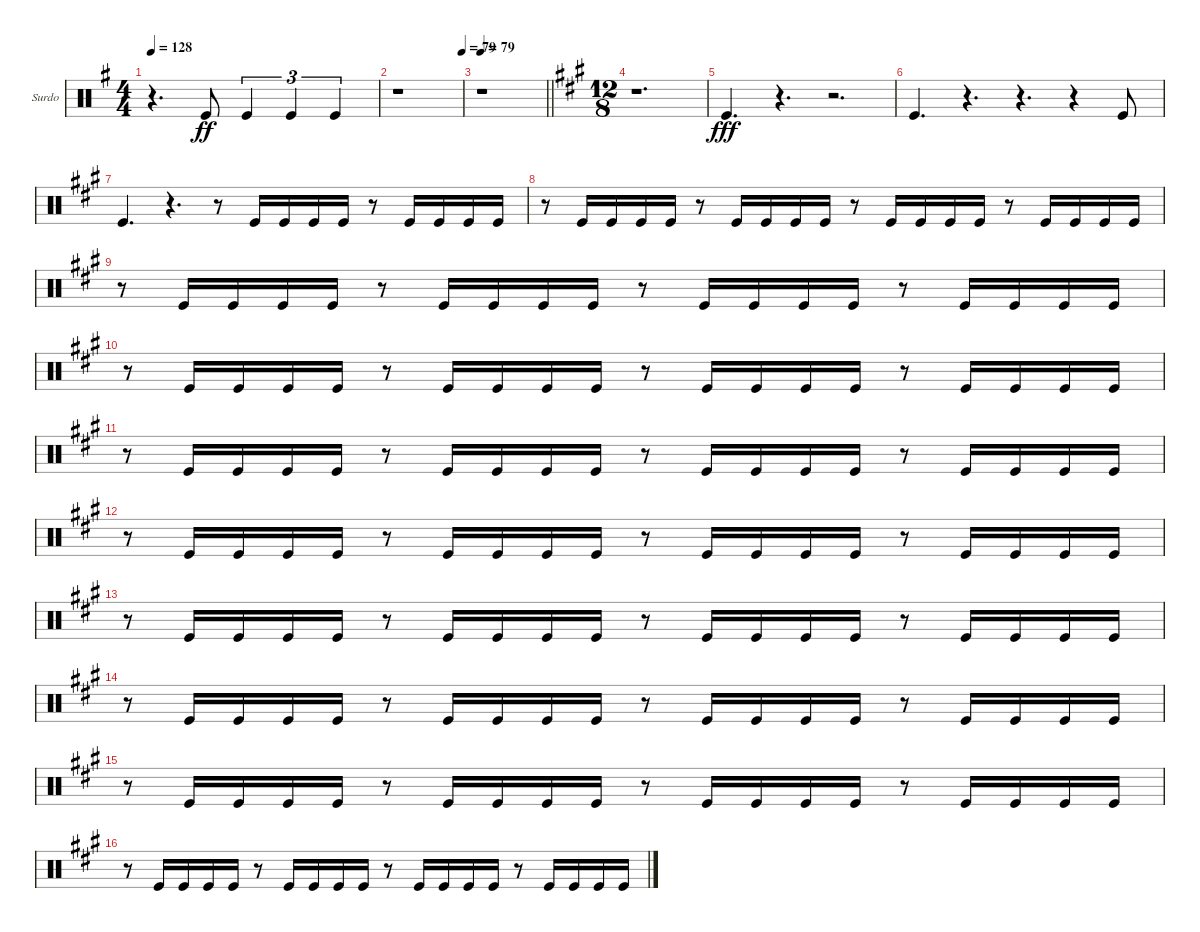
\bracketExtendMode groupsimilarinstruments
\firstSystemTrackNameOrientation horizontal
\otherSystemsTrackNameOrientation horizontal
\track ("Surdo" "Surdo") {instrument percussion}
\staff {score}
\articulation defaults
\ts (4 4)
\tempo 128
\clef neutral
\ks eminor
r.4{d dy ff} "Kick (hit)".8 "Kick (hit)".4{tu (3 2)} "Kick (hit)".4{tu (3 2)} "Kick (hit)".4{tu (3 2)} |
\tempo (79 1)
r.1 |
\tempo 79
\barLineRight lightlight
r.1 |
\ts (12 8)
\beaming (8 3 3 3 3)
\ks f#minor
r.1{d} |
"Kick (hit)".4{d dy fff} r.4{d} r.2{d} |
"Kick (hit)".4{d} r.4{d} r.4{d} r.4 "Kick (hit)".8 |
"Kick (hit)".4{d} r.4{d} r.8 "Kick (hit)".16 "Kick (hit)".16 "Kick (hit)".16 "Kick (hit)".16 r.8 "Kick (hit)".16 "Kick (hit)".16 "Kick (hit)".16 "Kick (hit)".16 |
r.8 "Kick (hit)".16 "Kick (hit)".16 "Kick (hit)".16 "Kick (hit)".16 r.8 "Kick (hit)".16 "Kick (hit)".16 "Kick (hit)".16 "Kick (hit)".16 r.8 "Kick (hit)".16 "Kick (hit)".16 "Kick (hit)".16 "Kick (hit)".16 r.8 "Kick (hit)".16 "Kick (hit)".16 "Kick (hit)".16 "Kick (hit)".16 |
r.8 "Kick (hit)".16 "Kick (hit)".16 "Kick (hit)".16 "Kick (hit)".16 r.8 "Kick (hit)".16 "Kick (hit)".16 "Kick (hit)".16 "Kick (hit)".16 r.8 "Kick (hit)".16 "Kick (hit)".16 "Kick (hit)".16 "Kick (hit)".16 r.8 "Kick (hit)".16 "Kick (hit)".16 "Kick (hit)".16 "Kick (hit)".16 |
r.8 "Kick (hit)".16 "Kick (hit)".16 "Kick (hit)".16 "Kick (hit)".16 r.8 "Kick (hit)".16 "Kick (hit)".16 "Kick (hit)".16 "Kick (hit)".16 r.8 "Kick (hit)".16 "Kick (hit)".16 "Kick (hit)".16 "Kick (hit)".16 r.8 "Kick (hit)".16 "Kick (hit)".16 "Kick (hit)".16 "Kick (hit)".16 |
r.8 "Kick (hit)".16 "Kick (hit)".16 "Kick (hit)".16 "Kick (hit)".16 r.8 "Kick (hit)".16 "Kick (hit)".16 "Kick (hit)".16 "Kick (hit)".16 r.8 "Kick (hit)".16 "Kick (hit)".16 "Kick (hit)".16 "Kick (hit)".16 r.8 "Kick (hit)".16 "Kick (hit)".16 "Kick (hit)".16 "Kick (hit)".16 |
r.8 "Kick (hit)".16 "Kick (hit)".16 "Kick (hit)".16 "Kick (hit)".16 r.8 "Kick (hit)".16 "Kick (hit)".16 "Kick (hit)".16 "Kick (hit)".16 r.8 "Kick (hit)".16 "Kick (hit)".16 "Kick (hit)".16 "Kick (hit)".16 r.8 "Kick (hit)".16 "Kick (hit)".16 "Kick (hit)".16 "Kick (hit)".16 |
r.8 "Kick (hit)".16 "Kick (hit)".16 "Kick (hit)".16 "Kick (hit)".16 r.8 "Kick (hit)".16 "Kick (hit)".16 "Kick (hit)".16 "Kick (hit)".16 r.8 "Kick (hit)".16 "Kick (hit)".16 "Kick (hit)".16 "Kick (hit)".16 r.8 "Kick (hit)".16 "Kick (hit)".16 "Kick (hit)".16 "Kick (hit)".16 |
r.8 "Kick (hit)".16 "Kick (hit)".16 "Kick (hit)".16 "Kick (hit)".16 r.8 "Kick (hit)".16 "Kick (hit)".16 "Kick (hit)".16 "Kick (hit)".16 r.8 "Kick (hit)".16 "Kick (hit)".16 "Kick (hit)".16 "Kick (hit)".16 r.8 "Kick (hit)".16 "Kick (hit)".16 "Kick (hit)".16 "Kick (hit)".16 |
r.8 "Kick (hit)".16 "Kick (hit)".16 "Kick (hit)".16 "Kick (hit)".16 r.8 "Kick (hit)".16 "Kick (hit)".16 "Kick (hit)".16 "Kick (hit)".16 r.8 "Kick (hit)".16 "Kick (hit)".16 "Kick (hit)".16 "Kick (hit)".16 r.8 "Kick (hit)".16 "Kick (hit)".16 "Kick (hit)".16 "Kick (hit)".16 |
r.8 "Kick (hit)".16 "Kick (hit)".16 "Kick (hit)".16 "Kick (hit)".16 r.8 "Kick (hit)".16 "Kick (hit)".16 "Kick (hit)".16 "Kick (hit)".16 r.8 "Kick (hit)".16 "Kick (hit)".16 "Kick (hit)".16 "Kick (hit)".16 r.8 "Kick (hit)".16 "Kick (hit)".16 "Kick (hit)".16 "Kick (hit)".16
